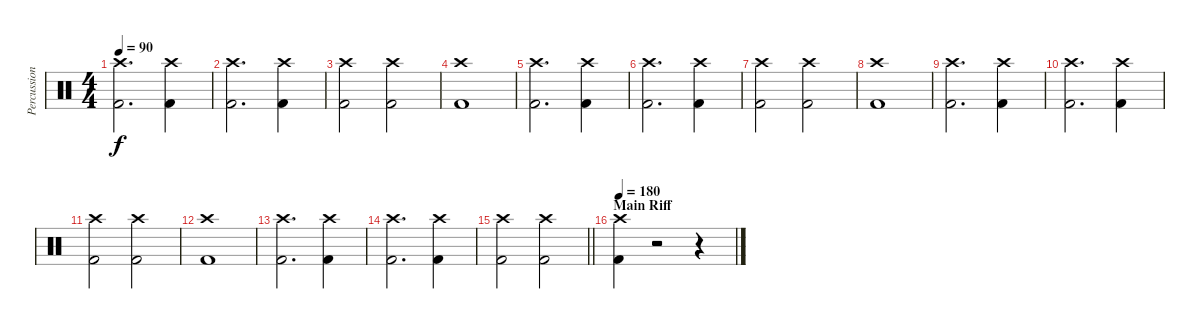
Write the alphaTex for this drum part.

\track ("Percussion" "Percussion") {instrument percussion}
\staff {score}
\articulation defaults
\ts (4 4)
\tempo 90
\clef neutral
\ks c
("Crash high (hit)" "Kick (hit) 2").2{d dy f} ("Crash high (hit)" "Kick (hit) 2").4 |
("Crash high (hit)" "Kick (hit) 2").2{d} ("Crash high (hit)" "Kick (hit) 2").4 |
("Crash high (hit)" "Kick (hit) 2").2 ("Crash high (hit)" "Kick (hit) 2").2 |
("Crash high (hit)" "Kick (hit) 2").1 |
("Crash high (hit)" "Kick (hit) 2").2{d} ("Crash high (hit)" "Kick (hit) 2").4 |
("Crash high (hit)" "Kick (hit) 2").2{d} ("Crash high (hit)" "Kick (hit) 2").4 |
("Crash high (hit)" "Kick (hit) 2").2 ("Crash high (hit)" "Kick (hit) 2").2 |
("Crash high (hit)" "Kick (hit) 2").1 |
("Crash high (hit)" "Kick (hit) 2").2{d} ("Crash high (hit)" "Kick (hit) 2").4 |
("Crash high (hit)" "Kick (hit) 2").2{d} ("Crash high (hit)" "Kick (hit) 2").4 |
("Crash high (hit)" "Kick (hit) 2").2 ("Crash high (hit)" "Kick (hit) 2").2 |
("Crash high (hit)" "Kick (hit) 2").1 |
("Crash high (hit)" "Kick (hit) 2").2{d} ("Crash high (hit)" "Kick (hit) 2").4 |
("Crash high (hit)" "Kick (hit) 2").2{d} ("Crash high (hit)" "Kick (hit) 2").4 |
\barLineRight lightlight
("Crash high (hit)" "Kick (hit) 2").2 ("Crash high (hit)" "Kick (hit) 2").2 |
\section ("" "Main Riff")
\tempo 180
("Crash high (hit)" "Kick (hit) 2").4 r.2 r.4
